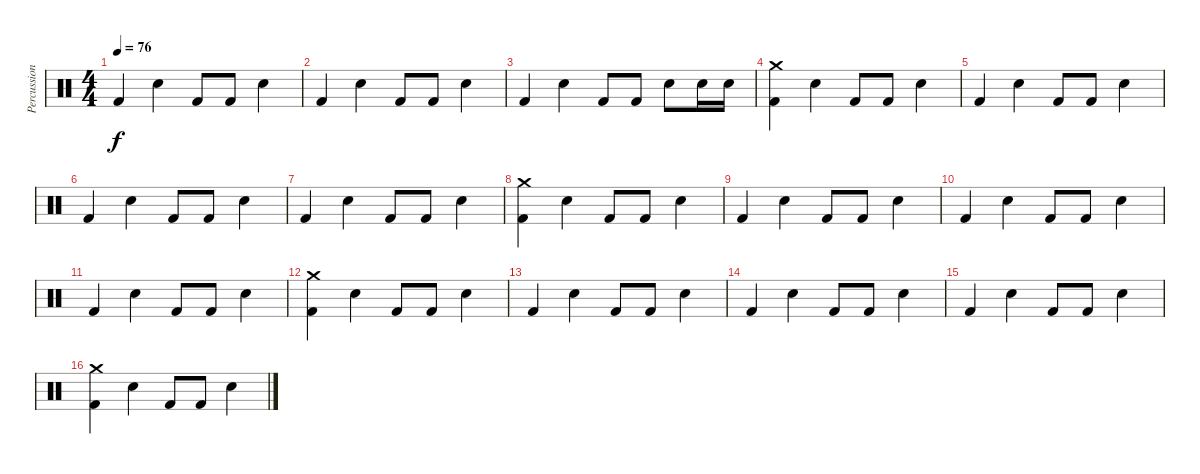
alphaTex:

\track ("Percussion" "Percussion") {instrument percussion}
\staff {score}
\articulation defaults
\ts (4 4)
\tempo 76
\clef neutral
\ks c "Kick (hit) 2".4{dy f} "Electric Snare (hit)".4 "Kick (hit) 2".8 "Kick (hit) 2".8 "Electric Snare (hit)".4
|
"Kick (hit) 2".4 "Electric Snare (hit)".4 "Kick (hit) 2".8 "Kick (hit) 2".8 "Electric Snare (hit)".4 |
"Kick (hit) 2".4 "Electric Snare (hit)".4 "Kick (hit) 2".8 "Kick (hit) 2".8 "Electric Snare (hit)".8 "Electric Snare (hit)".16 "Electric Snare (hit)".16 |
("Kick (hit) 2" "Crash medium (hit)").4 "Electric Snare (hit)".4 "Kick (hit) 2".8 "Kick (hit) 2".8 "Electric Snare (hit)".4 |
"Kick (hit) 2".4 "Electric Snare (hit)".4 "Kick (hit) 2".8 "Kick (hit) 2".8 "Electric Snare (hit)".4 |
"Kick (hit) 2".4 "Electric Snare (hit)".4 "Kick (hit) 2".8 "Kick (hit) 2".8 "Electric Snare (hit)".4 |
"Kick (hit) 2".4 "Electric Snare (hit)".4 "Kick (hit) 2".8 "Kick (hit) 2".8 "Electric Snare (hit)".4 |
("Kick (hit) 2" "Crash medium (hit)").4 "Electric Snare (hit)".4 "Kick (hit) 2".8 "Kick (hit) 2".8 "Electric Snare (hit)".4 |
"Kick (hit) 2".4 "Electric Snare (hit)".4 "Kick (hit) 2".8 "Kick (hit) 2".8 "Electric Snare (hit)".4 |
"Kick (hit) 2".4 "Electric Snare (hit)".4 "Kick (hit) 2".8 "Kick (hit) 2".8 "Electric Snare (hit)".4 |
"Kick (hit) 2".4 "Electric Snare (hit)".4 "Kick (hit) 2".8 "Kick (hit) 2".8 "Electric Snare (hit)".4 |
("Kick (hit) 2" "Crash medium (hit)").4 "Electric Snare (hit)".4 "Kick (hit) 2".8 "Kick (hit) 2".8 "Electric Snare (hit)".4 |
"Kick (hit) 2".4 "Electric Snare (hit)".4 "Kick (hit) 2".8 "Kick (hit) 2".8 "Electric Snare (hit)".4 |
"Kick (hit) 2".4 "Electric Snare (hit)".4 "Kick (hit) 2".8 "Kick (hit) 2".8 "Electric Snare (hit)".4 |
"Kick (hit) 2".4 "Electric Snare (hit)".4 "Kick (hit) 2".8 "Kick (hit) 2".8 "Electric Snare (hit)".4 |
("Kick (hit) 2" "Crash medium (hit)").4 "Electric Snare (hit)".4 "Kick (hit) 2".8 "Kick (hit) 2".8 "Electric Snare (hit)".4
